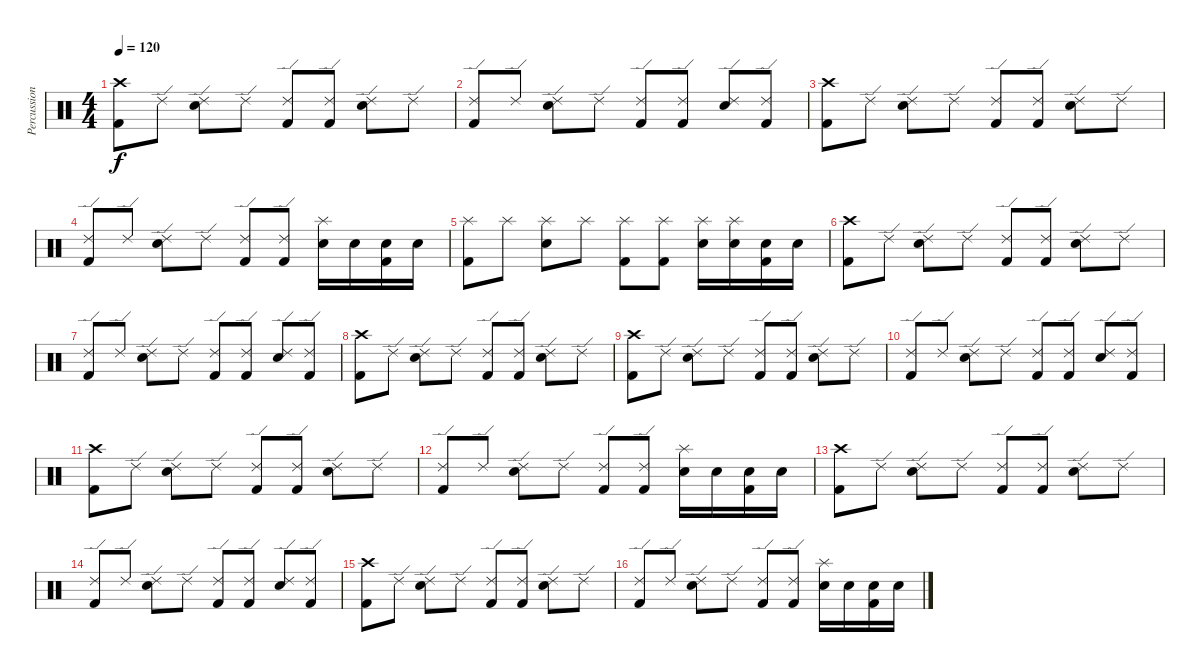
\track ("Percussion" "Percussion") {instrument percussion}
\staff {score}
\articulation defaults
\ts (4 4)
\tempo 120
\clef neutral
\ks c
("Crash high (hit)" "Kick (hit) 2").8{dy f} "Ride (edge) 2".8 ("Ride (edge) 2" "Electric Snare (hit)").8 "Ride (edge) 2".8 ("Ride (edge) 2" "Kick (hit) 2").8 ("Ride (edge) 2" "Kick (hit) 2").8 ("Ride (edge) 2" "Electric Snare (hit)").8 "Ride (edge) 2".8 |
("Ride (edge) 2" "Kick (hit) 2").8 "Ride (edge) 2".8 ("Ride (edge) 2" "Electric Snare (hit)").8 "Ride (edge) 2".8 ("Ride (edge) 2" "Kick (hit) 2").8 ("Ride (edge) 2" "Kick (hit) 2").8 ("Ride (edge) 2" "Electric Snare (hit)").8 ("Ride (edge) 2" "Kick (hit) 2").8 |
("Crash high (hit)" "Kick (hit) 2").8 "Ride (edge) 2".8 ("Ride (edge) 2" "Electric Snare (hit)").8 "Ride (edge) 2".8 ("Ride (edge) 2" "Kick (hit) 2").8 ("Ride (edge) 2" "Kick (hit) 2").8 ("Ride (edge) 2" "Electric Snare (hit)").8 "Ride (edge) 2".8 |
("Ride (edge) 2" "Kick (hit) 2").8 "Ride (edge) 2".8 ("Ride (edge) 2" "Electric Snare (hit)").8 "Ride (edge) 2".8 ("Ride (edge) 2" "Kick (hit) 2").8 ("Ride (edge) 2" "Kick (hit) 2").8 ("Splash (hit)" "Electric Snare (hit)").16 "Electric Snare (hit)".16 ("Electric Snare (hit)" "Kick (hit) 2").16 "Electric Snare (hit)".16 |
("Splash (hit)" "Kick (hit) 2").8 "Splash (hit)".8 ("Splash (hit)" "Electric Snare (hit)").8 "Splash (hit)".8 ("Splash (hit)" "Kick (hit) 2").8 ("Splash (hit)" "Kick (hit) 2").8 ("Splash (hit)" "Electric Snare (hit)").16 ("Splash (hit)" "Electric Snare (hit)").16 ("Electric Snare (hit)" "Kick (hit) 2").16 "Electric Snare (hit)".16 |
("Crash high (hit)" "Kick (hit) 2").8 "Ride (edge) 2".8 ("Ride (edge) 2" "Electric Snare (hit)").8 "Ride (edge) 2".8 ("Ride (edge) 2" "Kick (hit) 2").8 ("Ride (edge) 2" "Kick (hit) 2").8 ("Ride (edge) 2" "Electric Snare (hit)").8 "Ride (edge) 2".8 |
("Ride (edge) 2" "Kick (hit) 2").8 "Ride (edge) 2".8 ("Ride (edge) 2" "Electric Snare (hit)").8 "Ride (edge) 2".8 ("Ride (edge) 2" "Kick (hit) 2").8 ("Ride (edge) 2" "Kick (hit) 2").8 ("Ride (edge) 2" "Electric Snare (hit)").8 ("Ride (edge) 2" "Kick (hit) 2").8 |
("Crash high (hit)" "Kick (hit) 2").8 "Ride (edge) 2".8 ("Ride (edge) 2" "Electric Snare (hit)").8 "Ride (edge) 2".8 ("Ride (edge) 2" "Kick (hit) 2").8 ("Ride (edge) 2" "Kick (hit) 2").8 ("Ride (edge) 2" "Electric Snare (hit)").8 "Ride (edge) 2".8 |
("Crash high (hit)" "Kick (hit) 2").8 "Ride (edge) 2".8 ("Ride (edge) 2" "Electric Snare (hit)").8 "Ride (edge) 2".8 ("Ride (edge) 2" "Kick (hit) 2").8 ("Ride (edge) 2" "Kick (hit) 2").8 ("Ride (edge) 2" "Electric Snare (hit)").8 "Ride (edge) 2".8 |
("Ride (edge) 2" "Kick (hit) 2").8 "Ride (edge) 2".8 ("Ride (edge) 2" "Electric Snare (hit)").8 "Ride (edge) 2".8 ("Ride (edge) 2" "Kick (hit) 2").8 ("Ride (edge) 2" "Kick (hit) 2").8 ("Ride (edge) 2" "Electric Snare (hit)").8 ("Ride (edge) 2" "Kick (hit) 2").8 |
("Crash high (hit)" "Kick (hit) 2").8 "Ride (edge) 2".8 ("Ride (edge) 2" "Electric Snare (hit)").8 "Ride (edge) 2".8 ("Ride (edge) 2" "Kick (hit) 2").8 ("Ride (edge) 2" "Kick (hit) 2").8 ("Ride (edge) 2" "Electric Snare (hit)").8 "Ride (edge) 2".8 |
("Ride (edge) 2" "Kick (hit) 2").8 "Ride (edge) 2".8 ("Ride (edge) 2" "Electric Snare (hit)").8 "Ride (edge) 2".8 ("Ride (edge) 2" "Kick (hit) 2").8 ("Ride (edge) 2" "Kick (hit) 2").8 ("Splash (hit)" "Electric Snare (hit)").16 "Electric Snare (hit)".16 ("Electric Snare (hit)" "Kick (hit) 2").16 "Electric Snare (hit)".16 |
("Crash high (hit)" "Kick (hit) 2").8 "Ride (edge) 2".8 ("Ride (edge) 2" "Electric Snare (hit)").8 "Ride (edge) 2".8 ("Ride (edge) 2" "Kick (hit) 2").8 ("Ride (edge) 2" "Kick (hit) 2").8 ("Ride (edge) 2" "Electric Snare (hit)").8 "Ride (edge) 2".8 |
("Ride (edge) 2" "Kick (hit) 2").8 "Ride (edge) 2".8 ("Ride (edge) 2" "Electric Snare (hit)").8 "Ride (edge) 2".8 ("Ride (edge) 2" "Kick (hit) 2").8 ("Ride (edge) 2" "Kick (hit) 2").8 ("Ride (edge) 2" "Electric Snare (hit)").8 ("Ride (edge) 2" "Kick (hit) 2").8 |
("Crash high (hit)" "Kick (hit) 2").8 "Ride (edge) 2".8 ("Ride (edge) 2" "Electric Snare (hit)").8 "Ride (edge) 2".8 ("Ride (edge) 2" "Kick (hit) 2").8 ("Ride (edge) 2" "Kick (hit) 2").8 ("Ride (edge) 2" "Electric Snare (hit)").8 "Ride (edge) 2".8 |
("Ride (edge) 2" "Kick (hit) 2").8 "Ride (edge) 2".8 ("Ride (edge) 2" "Electric Snare (hit)").8 "Ride (edge) 2".8 ("Ride (edge) 2" "Kick (hit) 2").8 ("Ride (edge) 2" "Kick (hit) 2").8 ("Splash (hit)" "Electric Snare (hit)").16 "Electric Snare (hit)".16 ("Electric Snare (hit)" "Kick (hit) 2").16 "Electric Snare (hit)".16
